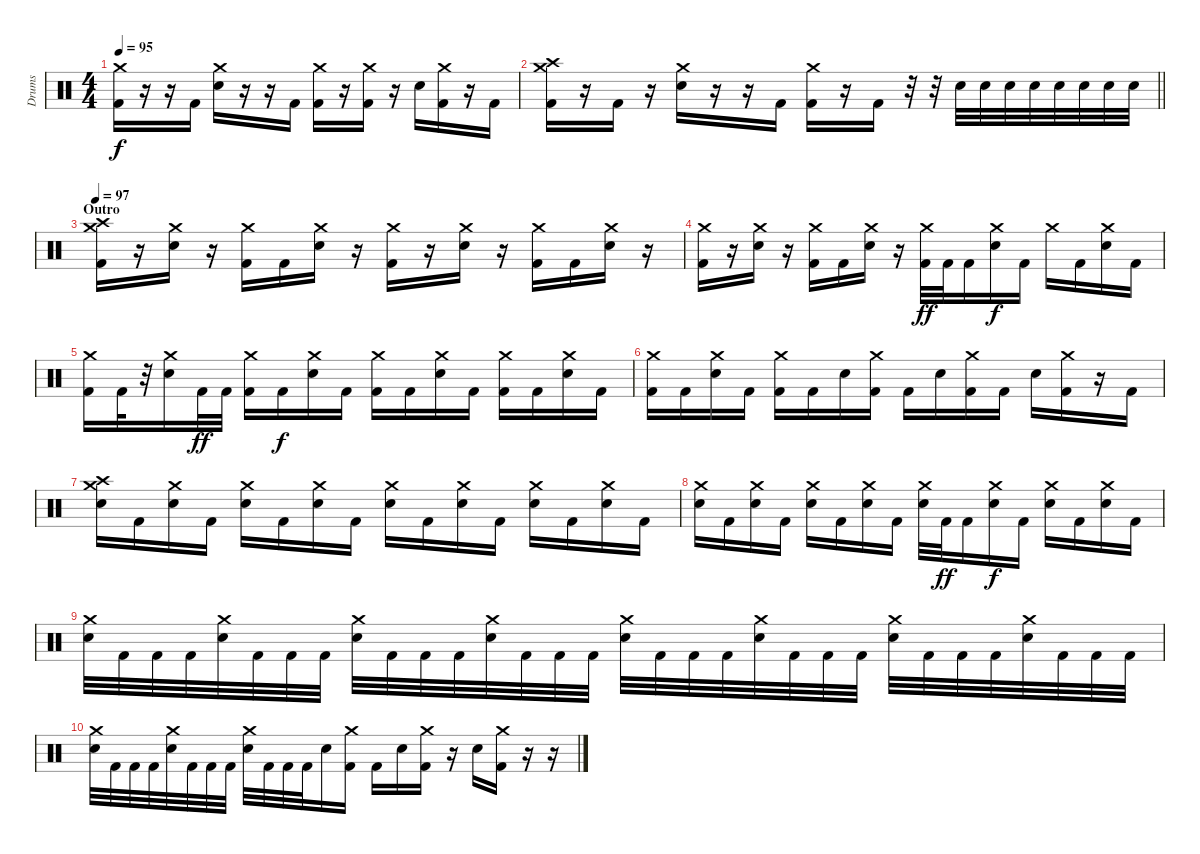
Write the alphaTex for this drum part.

\track ("Drums" "Drums") {instrument percussion}
\staff {score}
\articulation defaults
\ts (4 4)
\tempo 95
\clef neutral
\ks c
("Crash medium (hit)" "Kick (hit) 2").16{dy f} r.16 r.16 "Kick (hit) 2".16 ("Crash medium (hit)" "Electric Snare (hit)").16 r.16 r.16 "Kick (hit) 2".16 ("Crash medium (hit)" "Kick (hit) 2").16 r.16 ("Crash medium (hit)" "Kick (hit) 2").16 r.16 "Electric Snare (hit)".16 ("Crash medium (hit)" "Kick (hit) 2").16 r.16 "Kick (hit) 2".16 |
\barLineRight lightlight
("Crash high (hit)" "Crash medium (hit)" "Kick (hit) 2").16 r.16 "Kick (hit) 2".16 r.16 ("Crash medium (hit)" "Electric Snare (hit)").16 r.16 r.16 "Kick (hit) 2".16 ("Crash medium (hit)" "Kick (hit) 2").16 r.16 "Kick (hit) 2".16 r.32 r.32 "Electric Snare (hit)".32 "Electric Snare (hit)".32 "Electric Snare (hit)".32 "Electric Snare (hit)".32 "Electric Snare (hit)".32 "Electric Snare (hit)".32 "Electric Snare (hit)".32 "Electric Snare (hit)".32 |
\section ("" "Outro")
\tempo 97
("Crash high (hit)" "Crash medium (hit)" "Kick (hit) 2").16 r.16 ("Crash medium (hit)" "Electric Snare (hit)").16 r.16 ("Crash medium (hit)" "Kick (hit) 2").16 "Kick (hit) 2".16 ("Crash medium (hit)" "Electric Snare (hit)").16 r.16 ("Crash medium (hit)" "Kick (hit) 2").16 r.16 ("Crash medium (hit)" "Electric Snare (hit)").16 r.16 ("Crash medium (hit)" "Kick (hit) 2").16 "Kick (hit) 2".16 ("Crash medium (hit)" "Electric Snare (hit)").16 r.16 |
("Crash medium (hit)" "Kick (hit) 2").16 r.16 ("Crash medium (hit)" "Electric Snare (hit)").16 r.16 ("Crash medium (hit)" "Kick (hit) 2").16 "Kick (hit) 2".16 ("Crash medium (hit)" "Electric Snare (hit)").16 r.16 ("Crash medium (hit)" "Kick (hit) 2").32{dy ff} "Kick (hit) 2".32 "Kick (hit) 2".16 ("Crash medium (hit)" "Electric Snare (hit)").16{dy f} "Kick (hit) 2".16 "Crash medium (hit)".16 "Kick (hit) 2".16 ("Crash medium (hit)" "Electric Snare (hit)").16 "Kick (hit) 2".16 |
("Crash medium (hit)" "Kick (hit) 2").16 "Kick (hit) 2".32 r.32 ("Crash medium (hit)" "Electric Snare (hit)").16 "Kick (hit) 2".32{dy ff} "Kick (hit) 2".32 ("Crash medium (hit)" "Kick (hit) 2").16 "Kick (hit) 2".16{dy f} ("Crash medium (hit)" "Electric Snare (hit)").16 "Kick (hit) 2".16 ("Crash medium (hit)" "Kick (hit) 2").16 "Kick (hit) 2".16 ("Crash medium (hit)" "Electric Snare (hit)").16 "Kick (hit) 2".16 ("Crash medium (hit)" "Kick (hit) 2").16 "Kick (hit) 2".16 ("Crash medium (hit)" "Electric Snare (hit)").16 "Kick (hit) 2".16 |
("Crash medium (hit)" "Kick (hit) 2").16 "Kick (hit) 2".16 ("Crash medium (hit)" "Electric Snare (hit)").16 "Kick (hit) 2".16 ("Crash medium (hit)" "Kick (hit) 2").16 "Kick (hit) 2".16 "Electric Snare (hit)".16 ("Crash medium (hit)" "Kick (hit) 2").16 "Kick (hit) 2".16 "Electric Snare (hit)".16 ("Crash medium (hit)" "Kick (hit) 2").16 "Kick (hit) 2".16 "Electric Snare (hit)".16 ("Crash medium (hit)" "Kick (hit) 2").16 r.16 "Kick (hit) 2".16 |
("Crash high (hit)" "Crash medium (hit)" "Electric Snare (hit)").16 "Kick (hit) 2".16 ("Crash medium (hit)" "Electric Snare (hit)").16 "Kick (hit) 2".16 ("Crash medium (hit)" "Electric Snare (hit)").16 "Kick (hit) 2".16 ("Crash medium (hit)" "Electric Snare (hit)").16 "Kick (hit) 2".16 ("Crash medium (hit)" "Electric Snare (hit)").16 "Kick (hit) 2".16 ("Crash medium (hit)" "Electric Snare (hit)").16 "Kick (hit) 2".16 ("Crash medium (hit)" "Electric Snare (hit)").16 "Kick (hit) 2".16 ("Crash medium (hit)" "Electric Snare (hit)").16 "Kick (hit) 2".16 |
("Crash medium (hit)" "Electric Snare (hit)").16 "Kick (hit) 2".16 ("Crash medium (hit)" "Electric Snare (hit)").16 "Kick (hit) 2".16 ("Crash medium (hit)" "Electric Snare (hit)").16 "Kick (hit) 2".16 ("Crash medium (hit)" "Electric Snare (hit)").16 "Kick (hit) 2".16 ("Crash medium (hit)" "Electric Snare (hit)").32 "Kick (hit) 2".32{dy ff} "Kick (hit) 2".16 ("Crash medium (hit)" "Electric Snare (hit)").16{dy f} "Kick (hit) 2".16 ("Crash medium (hit)" "Electric Snare (hit)").16 "Kick (hit) 2".16 ("Crash medium (hit)" "Electric Snare (hit)").16 "Kick (hit) 2".16 |
("Crash medium (hit)" "Electric Snare (hit)").32 "Kick (hit) 2".32 "Kick (hit) 2".32 "Kick (hit) 2".32 ("Crash medium (hit)" "Electric Snare (hit)").32 "Kick (hit) 2".32 "Kick (hit) 2".32 "Kick (hit) 2".32 ("Crash medium (hit)" "Electric Snare (hit)").32 "Kick (hit) 2".32 "Kick (hit) 2".32 "Kick (hit) 2".32 ("Crash medium (hit)" "Electric Snare (hit)").32 "Kick (hit) 2".32 "Kick (hit) 2".32 "Kick (hit) 2".32 ("Crash medium (hit)" "Electric Snare (hit)").32 "Kick (hit) 2".32 "Kick (hit) 2".32 "Kick (hit) 2".32 ("Crash medium (hit)" "Electric Snare (hit)").32 "Kick (hit) 2".32 "Kick (hit) 2".32 "Kick (hit) 2".32 ("Crash medium (hit)" "Electric Snare (hit)").32 "Kick (hit) 2".32 "Kick (hit) 2".32 "Kick (hit) 2".32 ("Crash medium (hit)" "Electric Snare (hit)").32 "Kick (hit) 2".32 "Kick (hit) 2".32 "Kick (hit) 2".32 |
("Crash medium (hit)" "Electric Snare (hit)").32 "Kick (hit) 2".32 "Kick (hit) 2".32 "Kick (hit) 2".32 ("Crash medium (hit)" "Electric Snare (hit)").32 "Kick (hit) 2".32 "Kick (hit) 2".32 "Kick (hit) 2".32 ("Crash medium (hit)" "Electric Snare (hit)").32 "Kick (hit) 2".32 "Kick (hit) 2".32 "Kick (hit) 2".32 "Electric Snare (hit)".16 ("Crash medium (hit)" "Kick (hit) 2").16 "Kick (hit) 2".16 "Electric Snare (hit)".16 ("Crash medium (hit)" "Kick (hit) 2").16 r.16 "Electric Snare (hit)".16 ("Crash medium (hit)" "Kick (hit) 2").16 r.16 r.16
